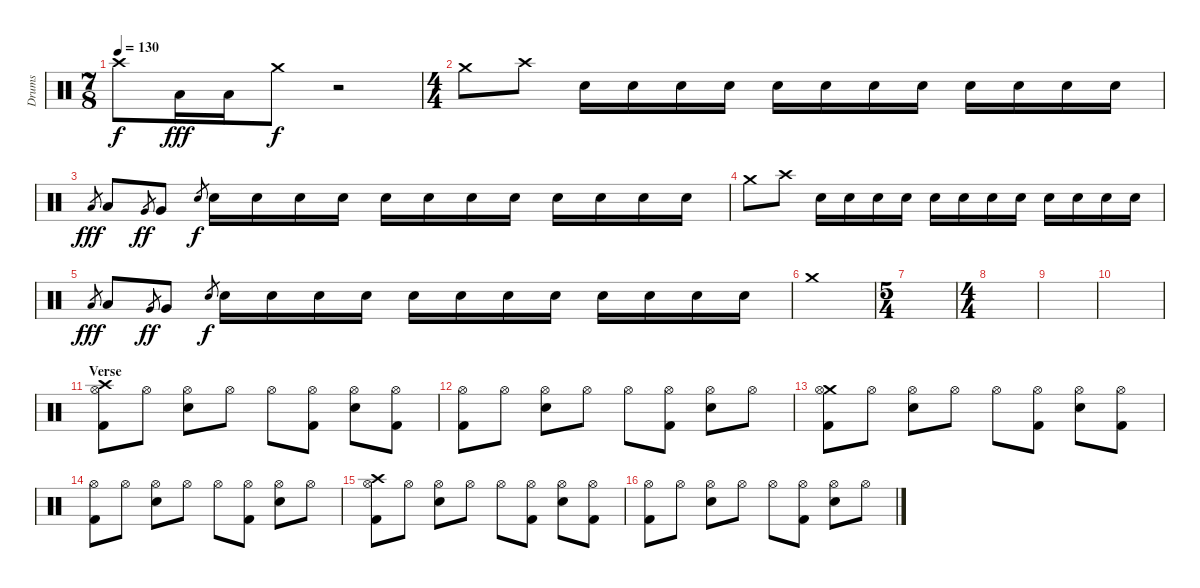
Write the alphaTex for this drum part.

\track ("Drums" "Drums") {instrument percussion}
\staff {score}
\articulation defaults
\ts (7 8)
\tempo 130
\clef neutral
\ks c "Crash high (hit)".8{dy f} "Low Floor Tom (hit)".16{dy fff} "Low Floor Tom (hit)".16 "Crash medium (hit)".8{dy f}
r.2 |
\ts (4 4)
"Crash medium (hit)".8 "Crash high (hit)".8 "Electric Snare (hit)".16 "Electric Snare (hit)".16 "Electric Snare (hit)".16 "Electric Snare (hit)".16 "Electric Snare (hit)".16 "Electric Snare (hit)".16 "Electric Snare (hit)".16 "Electric Snare (hit)".16 "Electric Snare (hit)".16 "Electric Snare (hit)".16 "Electric Snare (hit)".16 "Electric Snare (hit)".16 |
"Low Floor Tom (hit)".8{gr dy fff} "Low Floor Tom (hit)".8 "Very Low Tom (hit)".8{gr dy ff} "Very Low Tom (hit)".8 "Electric Snare (hit)".8{gr dy f} "Electric Snare (hit)".16 "Electric Snare (hit)".16 "Electric Snare (hit)".16 "Electric Snare (hit)".16 "Electric Snare (hit)".16 "Electric Snare (hit)".16 "Electric Snare (hit)".16 "Electric Snare (hit)".16 "Electric Snare (hit)".16 "Electric Snare (hit)".16 "Electric Snare (hit)".16 "Electric Snare (hit)".16 |
"Crash medium (hit)".8 "Crash high (hit)".8 "Electric Snare (hit)".16 "Electric Snare (hit)".16 "Electric Snare (hit)".16 "Electric Snare (hit)".16 "Electric Snare (hit)".16 "Electric Snare (hit)".16 "Electric Snare (hit)".16 "Electric Snare (hit)".16 "Electric Snare (hit)".16 "Electric Snare (hit)".16 "Electric Snare (hit)".16 "Electric Snare (hit)".16 |
"Low Floor Tom (hit)".8{gr dy fff} "Low Floor Tom (hit)".8 "Very Low Tom (hit)".8{gr dy ff} "Very Low Tom (hit)".8 "Electric Snare (hit)".8{gr dy f} "Electric Snare (hit)".16 "Electric Snare (hit)".16 "Electric Snare (hit)".16 "Electric Snare (hit)".16 "Electric Snare (hit)".16 "Electric Snare (hit)".16 "Electric Snare (hit)".16 "Electric Snare (hit)".16 "Electric Snare (hit)".16 "Electric Snare (hit)".16 "Electric Snare (hit)".16 "Electric Snare (hit)".16 |
"Crash medium (hit)".1 |
\ts (5 4)
|
\ts (4 4)
|
|
|
\section ("" "Verse")
("Crash high (hit)" "Hi-Hat (open)" "Kick (hit) 2").8 "Hi-Hat (open)".8 ("Hi-Hat (open)" "Electric Snare (hit)").8 "Hi-Hat (open)".8 "Hi-Hat (open)".8 ("Hi-Hat (open)" "Kick (hit) 2").8 ("Hi-Hat (open)" "Electric Snare (hit)").8 ("Hi-Hat (open)" "Kick (hit) 2").8 |
("Hi-Hat (open)" "Kick (hit) 2").8 "Hi-Hat (open)".8 ("Hi-Hat (open)" "Electric Snare (hit)").8 "Hi-Hat (open)".8 "Hi-Hat (open)".8 ("Hi-Hat (open)" "Kick (hit) 2").8 ("Hi-Hat (open)" "Electric Snare (hit)").8 "Hi-Hat (open)".8 |
("Crash medium (hit)" "Hi-Hat (open)" "Kick (hit) 2").8 "Hi-Hat (open)".8 ("Hi-Hat (open)" "Electric Snare (hit)").8 "Hi-Hat (open)".8 "Hi-Hat (open)".8 ("Hi-Hat (open)" "Kick (hit) 2").8 ("Hi-Hat (open)" "Electric Snare (hit)").8 ("Hi-Hat (open)" "Kick (hit) 2").8 |
("Hi-Hat (open)" "Kick (hit) 2").8 "Hi-Hat (open)".8 ("Hi-Hat (open)" "Electric Snare (hit)").8 "Hi-Hat (open)".8 "Hi-Hat (open)".8 ("Hi-Hat (open)" "Kick (hit) 2").8 ("Hi-Hat (open)" "Electric Snare (hit)").8 "Hi-Hat (open)".8 |
("Crash high (hit)" "Hi-Hat (open)" "Kick (hit) 2").8 "Hi-Hat (open)".8 ("Hi-Hat (open)" "Electric Snare (hit)").8 "Hi-Hat (open)".8 "Hi-Hat (open)".8 ("Hi-Hat (open)" "Kick (hit) 2").8 ("Hi-Hat (open)" "Electric Snare (hit)").8 ("Hi-Hat (open)" "Kick (hit) 2").8 |
("Hi-Hat (open)" "Kick (hit) 2").8 "Hi-Hat (open)".8 ("Hi-Hat (open)" "Electric Snare (hit)").8 "Hi-Hat (open)".8 "Hi-Hat (open)".8 ("Hi-Hat (open)" "Kick (hit) 2").8 ("Hi-Hat (open)" "Electric Snare (hit)").8 "Hi-Hat (open)".8
